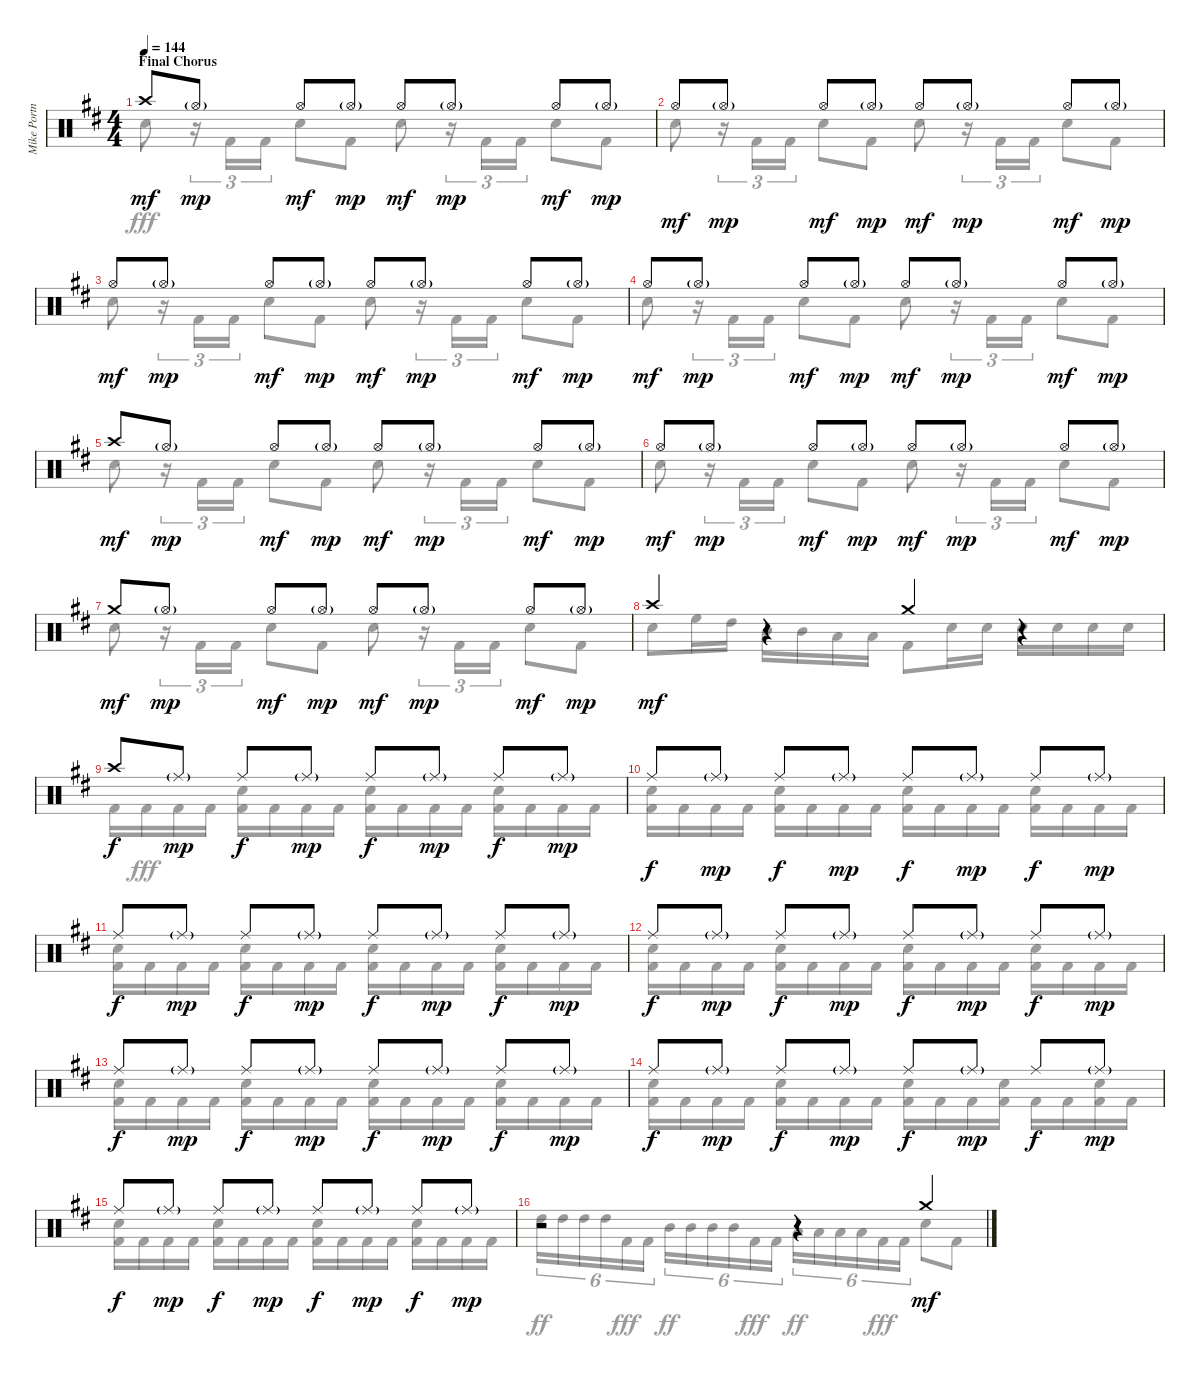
\track ("Mike Portnoy Drums" "Mike Portn") {instrument percussion}
\staff {score}
\articulation defaults
\voice
\ts (4 4)
\section ("" "Final Chorus")
\tempo 144
\clef neutral
\ks bminor "Crash high (hit)".8{dy mf} "Hi-Hat (open)"{g}.8{dy mp} "Hi-Hat (open)".8{dy mf} "Hi-Hat (open)"{g}.8{dy mp} "Hi-Hat (open)".8{dy mf} "Hi-Hat (open)"{g}.8{dy mp} "Hi-Hat (open)".8{dy mf} "Hi-Hat (open)"{g}.8{dy mp}
|
"Hi-Hat (open)".8{dy mf} "Hi-Hat (open)"{g}.8{dy mp} "Hi-Hat (open)".8{dy mf} "Hi-Hat (open)"{g}.8{dy mp} "Hi-Hat (open)".8{dy mf} "Hi-Hat (open)"{g}.8{dy mp} "Hi-Hat (open)".8{dy mf} "Hi-Hat (open)"{g}.8{dy mp} |
"Hi-Hat (open)".8{dy mf} "Hi-Hat (open)"{g}.8{dy mp} "Hi-Hat (open)".8{dy mf} "Hi-Hat (open)"{g}.8{dy mp} "Hi-Hat (open)".8{dy mf} "Hi-Hat (open)"{g}.8{dy mp} "Hi-Hat (open)".8{dy mf} "Hi-Hat (open)"{g}.8{dy mp} |
"Hi-Hat (open)".8{dy mf} "Hi-Hat (open)"{g}.8{dy mp} "Hi-Hat (open)".8{dy mf} "Hi-Hat (open)"{g}.8{dy mp} "Hi-Hat (open)".8{dy mf} "Hi-Hat (open)"{g}.8{dy mp} "Hi-Hat (open)".8{dy mf} "Hi-Hat (open)"{g}.8{dy mp} |
"Crash high (hit)".8{dy mf} "Hi-Hat (open)"{g}.8{dy mp} "Hi-Hat (open)".8{dy mf} "Hi-Hat (open)"{g}.8{dy mp} "Hi-Hat (open)".8{dy mf} "Hi-Hat (open)"{g}.8{dy mp} "Hi-Hat (open)".8{dy mf} "Hi-Hat (open)"{g}.8{dy mp} |
"Hi-Hat (open)".8{dy mf} "Hi-Hat (open)"{g}.8{dy mp} "Hi-Hat (open)".8{dy mf} "Hi-Hat (open)"{g}.8{dy mp} "Hi-Hat (open)".8{dy mf} "Hi-Hat (open)"{g}.8{dy mp} "Hi-Hat (open)".8{dy mf} "Hi-Hat (open)"{g}.8{dy mp} |
"Crash medium (hit)".8{dy mf} "Hi-Hat (open)"{g}.8{dy mp} "Hi-Hat (open)".8{dy mf} "Hi-Hat (open)"{g}.8{dy mp} "Hi-Hat (open)".8{dy mf} "Hi-Hat (open)"{g}.8{dy mp} "Hi-Hat (open)".8{dy mf} "Hi-Hat (open)"{g}.8{dy mp} |
"Crash high (hit)".4{dy mf} r.4 "Crash medium (hit)".4 r.4 |
"Crash high (hit)".8{dy f} "Ride (middle)"{g}.8{dy mp} "Ride (middle)".8{dy f} "Ride (middle)"{g}.8{dy mp} "Ride (middle)".8{dy f} "Ride (middle)"{g}.8{dy mp} "Ride (middle)".8{dy f} "Ride (middle)"{g}.8{dy mp} |
"Ride (middle)".8{dy f} "Ride (middle)"{g}.8{dy mp} "Ride (middle)".8{dy f} "Ride (middle)"{g}.8{dy mp} "Ride (middle)".8{dy f} "Ride (middle)"{g}.8{dy mp} "Ride (middle)".8{dy f} "Ride (middle)"{g}.8{dy mp} |
"Ride (middle)".8{dy f} "Ride (middle)"{g}.8{dy mp} "Ride (middle)".8{dy f} "Ride (middle)"{g}.8{dy mp} "Ride (middle)".8{dy f} "Ride (middle)"{g}.8{dy mp} "Ride (middle)".8{dy f} "Ride (middle)"{g}.8{dy mp} |
"Ride (middle)".8{dy f} "Ride (middle)"{g}.8{dy mp} "Ride (middle)".8{dy f} "Ride (middle)"{g}.8{dy mp} "Ride (middle)".8{dy f} "Ride (middle)"{g}.8{dy mp} "Ride (middle)".8{dy f} "Ride (middle)"{g}.8{dy mp} |
"Ride (middle)".8{dy f} "Ride (middle)"{g}.8{dy mp} "Ride (middle)".8{dy f} "Ride (middle)"{g}.8{dy mp} "Ride (middle)".8{dy f} "Ride (middle)"{g}.8{dy mp} "Ride (middle)".8{dy f} "Ride (middle)"{g}.8{dy mp} |
"Ride (middle)".8{dy f} "Ride (middle)"{g}.8{dy mp} "Ride (middle)".8{dy f} "Ride (middle)"{g}.8{dy mp} "Ride (middle)".8{dy f} "Ride (middle)"{g}.8{dy mp} "Ride (middle)".8{dy f} "Ride (middle)"{g}.8{dy mp} |
"Ride (middle)".8{dy f} "Ride (middle)"{g}.8{dy mp} "Ride (middle)".8{dy f} "Ride (middle)"{g}.8{dy mp} "Ride (middle)".8{dy f} "Ride (middle)"{g}.8{dy mp} "Ride (middle)".8{dy f} "Ride (middle)"{g}.8{dy mp} |
r.2 r.4 "Crash medium (hit)".4{dy mf}
\voice
\clef neutral
\ottava regular
\simile none
\ks bminor "Snare (hit) 2".8{dy fff}
r.16{tu (3 2)} "Kick (hit) 2".16{tu (3 2)} "Kick (hit) 2".16{tu (3 2)} "Snare (hit) 2".8 "Kick (hit) 2".8 "Snare (hit) 2".8 r.16{tu (3 2)} "Kick (hit) 2".16{tu (3 2)} "Kick (hit) 2".16{tu (3 2)} "Snare (hit) 2".8 "Kick (hit) 2".8 |
"Snare (hit) 2".8 r.16{tu (3 2)} "Kick (hit) 2".16{tu (3 2)} "Kick (hit) 2".16{tu (3 2)} "Snare (hit) 2".8 "Kick (hit) 2".8 "Snare (hit) 2".8 r.16{tu (3 2)} "Kick (hit) 2".16{tu (3 2)} "Kick (hit) 2".16{tu (3 2)} "Snare (hit) 2".8 "Kick (hit) 2".8 |
"Snare (hit) 2".8 r.16{tu (3 2)} "Kick (hit) 2".16{tu (3 2)} "Kick (hit) 2".16{tu (3 2)} "Snare (hit) 2".8 "Kick (hit) 2".8 "Snare (hit) 2".8 r.16{tu (3 2)} "Kick (hit) 2".16{tu (3 2)} "Kick (hit) 2".16{tu (3 2)} "Snare (hit) 2".8 "Kick (hit) 2".8 |
"Snare (hit) 2".8 r.16{tu (3 2)} "Kick (hit) 2".16{tu (3 2)} "Kick (hit) 2".16{tu (3 2)} "Snare (hit) 2".8 "Kick (hit) 2".8 "Snare (hit) 2".8 r.16{tu (3 2)} "Kick (hit) 2".16{tu (3 2)} "Kick (hit) 2".16{tu (3 2)} "Snare (hit) 2".8 "Kick (hit) 2".8 |
"Snare (hit) 2".8 r.16{tu (3 2)} "Kick (hit) 2".16{tu (3 2)} "Kick (hit) 2".16{tu (3 2)} "Snare (hit) 2".8 "Kick (hit) 2".8 "Snare (hit) 2".8 r.16{tu (3 2)} "Kick (hit) 2".16{tu (3 2)} "Kick (hit) 2".16{tu (3 2)} "Snare (hit) 2".8 "Kick (hit) 2".8 |
"Snare (hit) 2".8 r.16{tu (3 2)} "Kick (hit) 2".16{tu (3 2)} "Kick (hit) 2".16{tu (3 2)} "Snare (hit) 2".8 "Kick (hit) 2".8 "Snare (hit) 2".8 r.16{tu (3 2)} "Kick (hit) 2".16{tu (3 2)} "Kick (hit) 2".16{tu (3 2)} "Snare (hit) 2".8 "Kick (hit) 2".8 |
"Snare (hit) 2".8 r.16{tu (3 2)} "Kick (hit) 2".16{tu (3 2)} "Kick (hit) 2".16{tu (3 2)} "Snare (hit) 2".8 "Kick (hit) 2".8 "Snare (hit) 2".8 r.16{tu (3 2)} "Kick (hit) 2".16{tu (3 2)} "Kick (hit) 2".16{tu (3 2)} "Snare (hit) 2".8 "Kick (hit) 2".8 |
"Snare (hit) 2".8 "High Floor Tom (hit)".16 "High Tom (hit)".16 "Mid Tom (hit)".16 "Mid Tom (hit)".16 "Low Tom (hit)".16 "Low Tom (hit)".16 "Kick (hit) 2".8 "Snare (hit) 2".16 "Snare (hit) 2".16 "Snare (hit) 2".16 "Snare (hit) 2".16 "Snare (hit) 2".16 "Snare (hit) 2".16 |
"Kick (hit) 2".16{dy f} "Kick (hit) 2".16{dy fff} "Kick (hit) 2".16 "Kick (hit) 2".16 ("Snare (hit) 2" "Kick (hit) 2").16 "Kick (hit) 2".16 "Kick (hit) 2".16 "Kick (hit) 2".16 ("Snare (hit) 2" "Kick (hit) 2").16 "Kick (hit) 2".16 "Kick (hit) 2".16 "Kick (hit) 2".16 ("Snare (hit) 2" "Kick (hit) 2").16 "Kick (hit) 2".16 "Kick (hit) 2".16 "Kick (hit) 2".16 |
("Snare (hit) 2" "Kick (hit) 2").16 "Kick (hit) 2".16 "Kick (hit) 2".16 "Kick (hit) 2".16 ("Snare (hit) 2" "Kick (hit) 2").16 "Kick (hit) 2".16 "Kick (hit) 2".16 "Kick (hit) 2".16 ("Snare (hit) 2" "Kick (hit) 2").16 "Kick (hit) 2".16 "Kick (hit) 2".16 "Kick (hit) 2".16 ("Snare (hit) 2" "Kick (hit) 2").16 "Kick (hit) 2".16 "Kick (hit) 2".16 "Kick (hit) 2".16 |
("Snare (hit) 2" "Kick (hit) 2").16 "Kick (hit) 2".16 "Kick (hit) 2".16 "Kick (hit) 2".16 ("Snare (hit) 2" "Kick (hit) 2").16 "Kick (hit) 2".16 "Kick (hit) 2".16 "Kick (hit) 2".16 ("Snare (hit) 2" "Kick (hit) 2").16 "Kick (hit) 2".16 "Kick (hit) 2".16 "Kick (hit) 2".16 ("Snare (hit) 2" "Kick (hit) 2").16 "Kick (hit) 2".16 "Kick (hit) 2".16 "Kick (hit) 2".16 |
("Snare (hit) 2" "Kick (hit) 2").16 "Kick (hit) 2".16 "Kick (hit) 2".16 "Kick (hit) 2".16 ("Snare (hit) 2" "Kick (hit) 2").16 "Kick (hit) 2".16 "Kick (hit) 2".16 "Kick (hit) 2".16 ("Snare (hit) 2" "Kick (hit) 2").16 "Kick (hit) 2".16 "Kick (hit) 2".16 "Kick (hit) 2".16 ("Snare (hit) 2" "Kick (hit) 2").16 "Kick (hit) 2".16 "Kick (hit) 2".16 "Kick (hit) 2".16 |
("Snare (hit) 2" "Kick (hit) 2").16 "Kick (hit) 2".16 "Kick (hit) 2".16 "Kick (hit) 2".16 ("Snare (hit) 2" "Kick (hit) 2").16 "Kick (hit) 2".16 "Kick (hit) 2".16 "Kick (hit) 2".16 ("Snare (hit) 2" "Kick (hit) 2").16 "Kick (hit) 2".16 "Kick (hit) 2".16 "Kick (hit) 2".16 ("Snare (hit) 2" "Kick (hit) 2").16 "Kick (hit) 2".16 "Kick (hit) 2".16 "Kick (hit) 2".16 |
("Snare (hit) 2" "Kick (hit) 2").16 "Kick (hit) 2".16 "Kick (hit) 2".16 "Kick (hit) 2".16 ("Snare (hit) 2" "Kick (hit) 2").16 "Kick (hit) 2".16 "Kick (hit) 2".16 "Kick (hit) 2".16 ("Snare (hit) 2" "Kick (hit) 2").16 "Kick (hit) 2".16 "Kick (hit) 2".16 ("Snare (hit) 2" "Kick (hit) 2").16 "Kick (hit) 2".16 "Kick (hit) 2".16 ("Snare (hit) 2" "Kick (hit) 2").16 "Kick (hit) 2".16 |
("Snare (hit) 2" "Kick (hit) 2").16 "Kick (hit) 2".16 "Kick (hit) 2".16 "Kick (hit) 2".16 ("Snare (hit) 2" "Kick (hit) 2").16 "Kick (hit) 2".16 "Kick (hit) 2".16 "Kick (hit) 2".16 ("Snare (hit) 2" "Kick (hit) 2").16 "Kick (hit) 2".16 "Kick (hit) 2".16 "Kick (hit) 2".16 ("Snare (hit) 2" "Kick (hit) 2").16 "Kick (hit) 2".16 "Kick (hit) 2".16 "Kick (hit) 2".16 |
"High Tom (hit)".16{tu (6 4) dy ff} "High Tom (hit)".16{tu (6 4)} "High Tom (hit)".16{tu (6 4)} "High Tom (hit)".16{tu (6 4)} "Kick (hit) 2".16{tu (6 4) dy fff} "Kick (hit) 2".16{tu (6 4)} "Mid Tom (hit)".16{tu (6 4) dy ff} "Mid Tom (hit)".16{tu (6 4)} "Mid Tom (hit)".16{tu (6 4)} "Mid Tom (hit)".16{tu (6 4)} "Kick (hit) 2".16{tu (6 4) dy fff} "Kick (hit) 2".16{tu (6 4)} "Low Tom (hit)".16{tu (6 4) dy ff} "Low Tom (hit)".16{tu (6 4)} "Low Tom (hit)".16{tu (6 4)} "Low Tom (hit)".16{tu (6 4)} "Kick (hit) 2".16{tu (6 4) dy fff} "Kick (hit) 2".16{tu (6 4)} "Snare (hit) 2".8 "Kick (hit) 2".8
